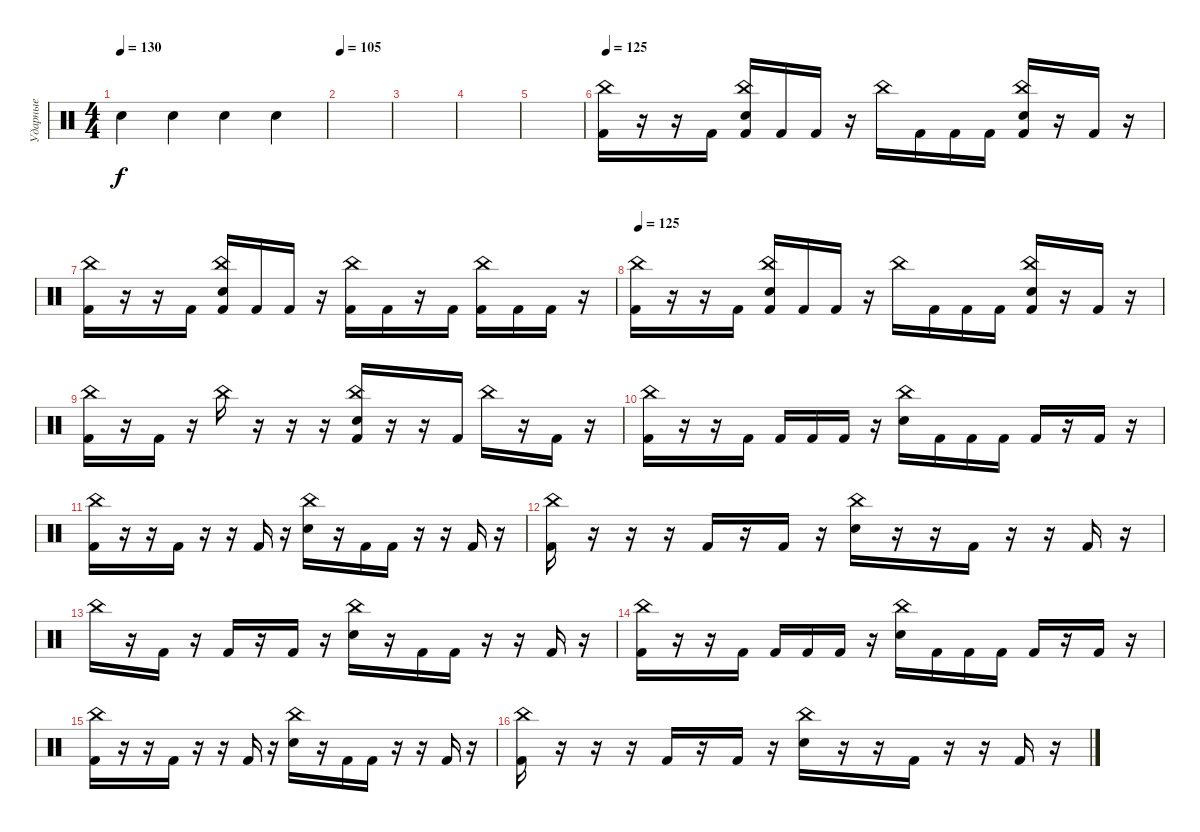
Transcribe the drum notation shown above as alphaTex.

\track ("Ударные" "Ударные") {instrument percussion}
\staff {score}
\articulation defaults
\ts (4 4)
\tempo 130
\clef neutral
\ks c "Electric Snare (hit)".4{dy f} "Electric Snare (hit)".4 "Electric Snare (hit)".4 "Electric Snare (hit)".4
|
\tempo 105
|
|
|
|
\tempo 125
("China (hit)" "Kick (hit) 2").16 r.16 r.16 "Kick (hit) 2".16 ("China (hit)" "Electric Snare (hit)" "Kick (hit) 2").16 "Kick (hit) 2".16 "Kick (hit) 2".16 r.16 "China (hit)".16 "Kick (hit) 2".16 "Kick (hit) 2".16 "Kick (hit) 2".16 ("China (hit)" "Electric Snare (hit)" "Kick (hit) 2").16 r.16 "Kick (hit) 2".16 r.16 |
("China (hit)" "Kick (hit) 2").16 r.16 r.16 "Kick (hit) 2".16 ("China (hit)" "Electric Snare (hit)" "Kick (hit) 2").16 "Kick (hit) 2".16 "Kick (hit) 2".16 r.16 ("China (hit)" "Kick (hit) 2").16 "Kick (hit) 2".16 r.16 "Kick (hit) 2".16 ("China (hit)" "Kick (hit) 2").16 "Kick (hit) 2".16 "Kick (hit) 2".16 r.16 |
\tempo 125
("China (hit)" "Kick (hit) 2").16 r.16 r.16 "Kick (hit) 2".16 ("China (hit)" "Electric Snare (hit)" "Kick (hit) 2").16 "Kick (hit) 2".16 "Kick (hit) 2".16 r.16 "China (hit)".16 "Kick (hit) 2".16 "Kick (hit) 2".16 "Kick (hit) 2".16 ("China (hit)" "Electric Snare (hit)" "Kick (hit) 2").16 r.16 "Kick (hit) 2".16 r.16 |
("China (hit)" "Kick (hit) 2").16 r.16 "Kick (hit) 2".16 r.16 "China (hit)".16 r.16 r.16 r.16 ("China (hit)" "Electric Snare (hit)" "Kick (hit) 2").16 r.16 r.16 "Kick (hit) 2".16 "China (hit)".16 r.16 "Kick (hit) 2".16 r.16 |
("China (hit)" "Kick (hit) 2").16 r.16 r.16 "Kick (hit) 2".16 "Kick (hit) 2".16 "Kick (hit) 2".16 "Kick (hit) 2".16 r.16 ("China (hit)" "Electric Snare (hit)").16 "Kick (hit) 2".16 "Kick (hit) 2".16 "Kick (hit) 2".16 "Kick (hit) 2".16 r.16 "Kick (hit) 2".16 r.16 |
("China (hit)" "Kick (hit) 2").16 r.16 r.16 "Kick (hit) 2".16 r.16 r.16 "Kick (hit) 2".16 r.16 ("China (hit)" "Electric Snare (hit)").16 r.16 "Kick (hit) 2".16 "Kick (hit) 2".16 r.16 r.16 "Kick (hit) 2".16 r.16 |
("China (hit)" "Kick (hit) 2").16 r.16 r.16 r.16 "Kick (hit) 2".16 r.16 "Kick (hit) 2".16 r.16 ("China (hit)" "Electric Snare (hit)").16 r.16 r.16 "Kick (hit) 2".16 r.16 r.16 "Kick (hit) 2".16 r.16 |
"China (hit)".16 r.16 "Kick (hit) 2".16 r.16 "Kick (hit) 2".16 r.16 "Kick (hit) 2".16 r.16 ("China (hit)" "Electric Snare (hit)").16 r.16 "Kick (hit) 2".16 "Kick (hit) 2".16 r.16 r.16 "Kick (hit) 2".16 r.16 |
("China (hit)" "Kick (hit) 2").16 r.16 r.16 "Kick (hit) 2".16 "Kick (hit) 2".16 "Kick (hit) 2".16 "Kick (hit) 2".16 r.16 ("China (hit)" "Electric Snare (hit)").16 "Kick (hit) 2".16 "Kick (hit) 2".16 "Kick (hit) 2".16 "Kick (hit) 2".16 r.16 "Kick (hit) 2".16 r.16 |
("China (hit)" "Kick (hit) 2").16 r.16 r.16 "Kick (hit) 2".16 r.16 r.16 "Kick (hit) 2".16 r.16 ("China (hit)" "Electric Snare (hit)").16 r.16 "Kick (hit) 2".16 "Kick (hit) 2".16 r.16 r.16 "Kick (hit) 2".16 r.16 |
("China (hit)" "Kick (hit) 2").16 r.16 r.16 r.16 "Kick (hit) 2".16 r.16 "Kick (hit) 2".16 r.16 ("China (hit)" "Electric Snare (hit)").16 r.16 r.16 "Kick (hit) 2".16 r.16 r.16 "Kick (hit) 2".16 r.16
